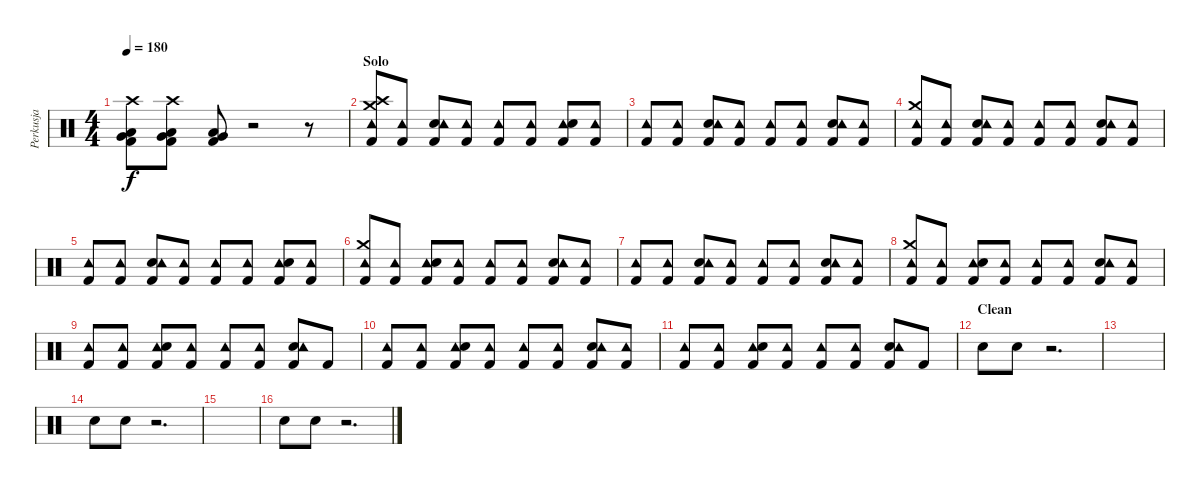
\track ("Perkusja" "Perkusja") {instrument percussion}
\staff {score}
\articulation defaults
\ts (4 4)
\tempo 180
\clef neutral
\ks c
("Low Floor Tom (hit)" "Very Low Tom (hit)" "Kick (hit) 2" "Crash high (hit)").8{dy f} ("Low Floor Tom (hit)" "Very Low Tom (hit)" "Kick (hit) 2" "Crash high (hit)").8 ("Low Floor Tom (hit)" "Very Low Tom (hit)" "Kick (hit) 2").8 r.2 r.8 |
\section ("" "Solo")
("Crash high (hit)" "Crash medium (hit)" "Kick (hit) 2" "Tambourine (hit)").8 ("Kick (hit) 2" "Tambourine (hit)").8 ("Snare (hit) 2" "Kick (hit) 2" "Tambourine (hit)").8 ("Tambourine (hit)" "Kick (hit) 2").8 ("Kick (hit) 2" "Tambourine (hit)").8 ("Kick (hit) 2" "Tambourine (hit)").8 ("Kick (hit) 2" "Tambourine (hit)" "Snare (hit) 2").8 ("Tambourine (hit)" "Kick (hit) 2").8 |
("Tambourine (hit)" "Kick (hit) 2").8 ("Kick (hit) 2" "Tambourine (hit)").8 ("Kick (hit) 2" "Snare (hit) 2" "Tambourine (hit)").8 ("Tambourine (hit)" "Kick (hit) 2").8 ("Kick (hit) 2" "Tambourine (hit)").8 ("Kick (hit) 2" "Tambourine (hit)").8 ("Kick (hit) 2" "Snare (hit) 2" "Tambourine (hit)").8 ("Kick (hit) 2" "Tambourine (hit)").8 |
("Kick (hit) 2" "Tambourine (hit)" "Crash medium (hit)").8 ("Kick (hit) 2" "Tambourine (hit)").8 ("Kick (hit) 2" "Snare (hit) 2" "Tambourine (hit)").8 ("Tambourine (hit)" "Kick (hit) 2").8 ("Tambourine (hit)" "Kick (hit) 2").8 ("Kick (hit) 2" "Tambourine (hit)").8 ("Kick (hit) 2" "Snare (hit) 2" "Tambourine (hit)").8 ("Kick (hit) 2" "Tambourine (hit)").8 |
("Tambourine (hit)" "Kick (hit) 2").8 ("Kick (hit) 2" "Tambourine (hit)").8 ("Kick (hit) 2" "Snare (hit) 2" "Tambourine (hit)").8 ("Tambourine (hit)" "Kick (hit) 2").8 ("Tambourine (hit)" "Kick (hit) 2").8 ("Kick (hit) 2" "Tambourine (hit)").8 ("Kick (hit) 2" "Tambourine (hit)" "Snare (hit) 2").8 ("Tambourine (hit)" "Kick (hit) 2").8 |
("Tambourine (hit)" "Kick (hit) 2" "Crash medium (hit)").8 ("Tambourine (hit)" "Kick (hit) 2").8 ("Tambourine (hit)" "Kick (hit) 2" "Snare (hit) 2").8 ("Tambourine (hit)" "Kick (hit) 2").8 ("Kick (hit) 2" "Tambourine (hit)").8 ("Kick (hit) 2" "Tambourine (hit)").8 ("Snare (hit) 2" "Tambourine (hit)" "Kick (hit) 2").8 ("Tambourine (hit)" "Kick (hit) 2").8 |
("Tambourine (hit)" "Kick (hit) 2").8 ("Tambourine (hit)" "Kick (hit) 2").8 ("Kick (hit) 2" "Snare (hit) 2" "Tambourine (hit)").8 ("Tambourine (hit)" "Kick (hit) 2").8 ("Tambourine (hit)" "Kick (hit) 2").8 ("Kick (hit) 2" "Tambourine (hit)").8 ("Kick (hit) 2" "Snare (hit) 2" "Tambourine (hit)").8 ("Tambourine (hit)" "Kick (hit) 2").8 |
("Tambourine (hit)" "Kick (hit) 2" "Crash medium (hit)").8 ("Kick (hit) 2" "Tambourine (hit)").8 ("Kick (hit) 2" "Tambourine (hit)" "Snare (hit) 2").8 ("Tambourine (hit)" "Kick (hit) 2").8 ("Tambourine (hit)" "Kick (hit) 2").8 ("Kick (hit) 2" "Tambourine (hit)").8 ("Kick (hit) 2" "Snare (hit) 2" "Tambourine (hit)").8 ("Tambourine (hit)" "Kick (hit) 2").8 |
("Kick (hit) 2" "Tambourine (hit)").8 ("Kick (hit) 2" "Tambourine (hit)").8 ("Tambourine (hit)" "Kick (hit) 2" "Snare (hit) 2").8 ("Tambourine (hit)" "Kick (hit) 2").8 ("Kick (hit) 2" "Tambourine (hit)").8 ("Kick (hit) 2" "Tambourine (hit)").8 ("Kick (hit) 2" "Snare (hit) 2" "Tambourine (hit)").8 "Kick (hit) 2".8 |
("Tambourine (hit)" "Kick (hit) 2").8 ("Kick (hit) 2" "Tambourine (hit)").8 ("Kick (hit) 2" "Tambourine (hit)" "Snare (hit) 2").8 ("Tambourine (hit)" "Kick (hit) 2").8 ("Tambourine (hit)" "Kick (hit) 2").8 ("Kick (hit) 2" "Tambourine (hit)").8 ("Kick (hit) 2" "Snare (hit) 2" "Tambourine (hit)").8 ("Tambourine (hit)" "Kick (hit) 2").8 |
("Kick (hit) 2" "Tambourine (hit)").8 ("Kick (hit) 2" "Tambourine (hit)").8 ("Tambourine (hit)" "Kick (hit) 2" "Snare (hit) 2").8 ("Tambourine (hit)" "Kick (hit) 2").8 ("Kick (hit) 2" "Tambourine (hit)").8 ("Kick (hit) 2" "Tambourine (hit)").8 ("Kick (hit) 2" "Snare (hit) 2" "Tambourine (hit)").8 "Kick (hit) 2".8 |
\section ("" "Clean")
"Metronome (bell)".8 "Metronome (bell)".8 r.2{d} |
|
"Metronome (bell)".8 "Metronome (bell)".8 r.2{d} |
|
"Metronome (bell)".8 "Metronome (bell)".8 r.2{d}
